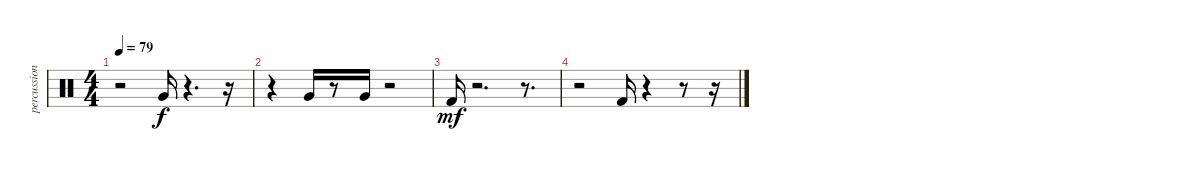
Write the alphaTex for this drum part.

\track ("percussion" "percussion") {instrument percussion}
\staff {score}
\articulation defaults
\ts (4 4)
\tempo 79
\clef neutral
\ks c
r.2{dy f} "Very Low Tom (hit)".16 r.4{d} r.16 |
r.4 "Very Low Tom (hit)".16 r.8 "Very Low Tom (hit)".16 r.2 |
"Kick (hit) 2".16{dy mf} r.2{d} r.8{d} |
r.2 "Kick (hit) 2".16 r.4 r.8 r.16
